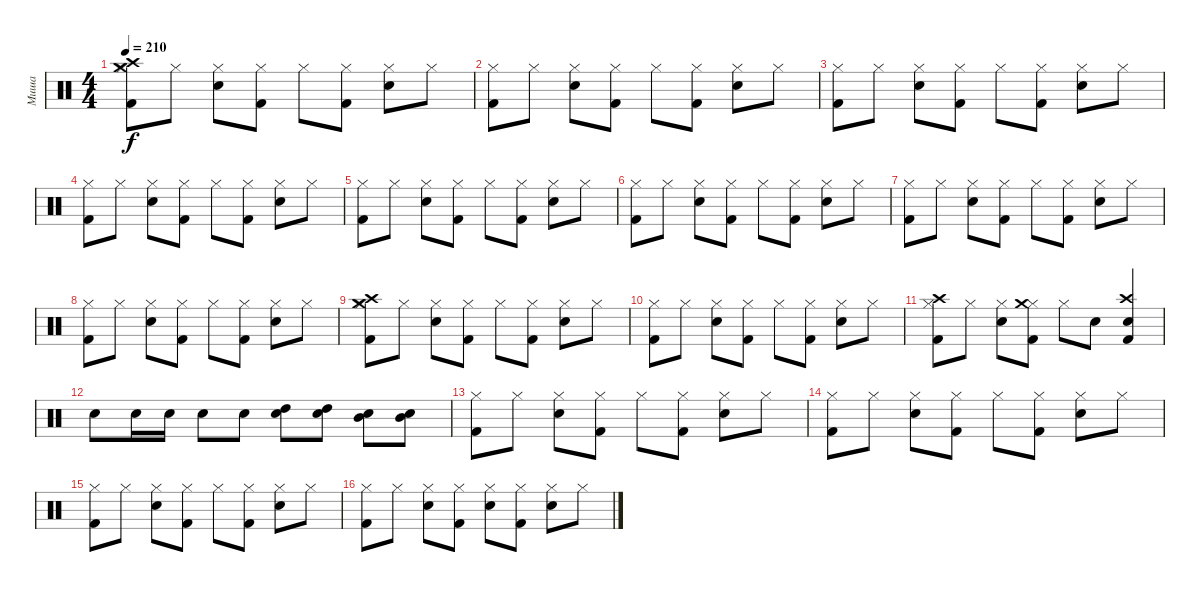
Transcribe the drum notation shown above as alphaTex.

\track ("Миша" "Миша") {instrument percussion}
\staff {score}
\articulation defaults
\ts (4 4)
\tempo 210
\clef neutral
\ks c
("Hi-Hat (closed)" "Kick (hit) 2" "Crash medium (hit)" "Crash high (hit)").8{dy f} "Hi-Hat (closed)".8 ("Hi-Hat (closed)" "Snare (hit) 2").8 ("Hi-Hat (closed)" "Kick (hit) 2").8 "Hi-Hat (closed)".8 ("Hi-Hat (closed)" "Kick (hit) 2").8 ("Hi-Hat (closed)" "Snare (hit) 2").8 "Hi-Hat (closed)".8 |
("Hi-Hat (closed)" "Kick (hit) 2").8 "Hi-Hat (closed)".8 ("Hi-Hat (closed)" "Snare (hit) 2").8 ("Hi-Hat (closed)" "Kick (hit) 2").8 "Hi-Hat (closed)".8 ("Hi-Hat (closed)" "Kick (hit) 2").8 ("Hi-Hat (closed)" "Snare (hit) 2").8 "Hi-Hat (closed)".8 |
("Hi-Hat (closed)" "Kick (hit) 2").8 "Hi-Hat (closed)".8 ("Hi-Hat (closed)" "Snare (hit) 2").8 ("Hi-Hat (closed)" "Kick (hit) 2").8 "Hi-Hat (closed)".8 ("Hi-Hat (closed)" "Kick (hit) 2").8 ("Hi-Hat (closed)" "Snare (hit) 2").8 "Hi-Hat (closed)".8 |
("Hi-Hat (closed)" "Kick (hit) 2").8 "Hi-Hat (closed)".8 ("Hi-Hat (closed)" "Snare (hit) 2").8 ("Hi-Hat (closed)" "Kick (hit) 2").8 "Hi-Hat (closed)".8 ("Hi-Hat (closed)" "Kick (hit) 2").8 ("Hi-Hat (closed)" "Snare (hit) 2").8 "Hi-Hat (closed)".8 |
("Hi-Hat (closed)" "Kick (hit) 2").8 "Hi-Hat (closed)".8 ("Hi-Hat (closed)" "Snare (hit) 2").8 ("Hi-Hat (closed)" "Kick (hit) 2").8 "Hi-Hat (closed)".8 ("Hi-Hat (closed)" "Kick (hit) 2").8 ("Hi-Hat (closed)" "Snare (hit) 2").8 "Hi-Hat (closed)".8 |
("Hi-Hat (closed)" "Kick (hit) 2").8 "Hi-Hat (closed)".8 ("Hi-Hat (closed)" "Snare (hit) 2").8 ("Hi-Hat (closed)" "Kick (hit) 2").8 "Hi-Hat (closed)".8 ("Hi-Hat (closed)" "Kick (hit) 2").8 ("Hi-Hat (closed)" "Snare (hit) 2").8 "Hi-Hat (closed)".8 |
("Hi-Hat (closed)" "Kick (hit) 2").8 "Hi-Hat (closed)".8 ("Hi-Hat (closed)" "Snare (hit) 2").8 ("Hi-Hat (closed)" "Kick (hit) 2").8 "Hi-Hat (closed)".8 ("Hi-Hat (closed)" "Kick (hit) 2").8 ("Hi-Hat (closed)" "Snare (hit) 2").8 "Hi-Hat (closed)".8 |
("Hi-Hat (closed)" "Kick (hit) 2").8 "Hi-Hat (closed)".8 ("Hi-Hat (closed)" "Snare (hit) 2").8 ("Hi-Hat (closed)" "Kick (hit) 2").8 "Hi-Hat (closed)".8 ("Hi-Hat (closed)" "Kick (hit) 2").8 ("Hi-Hat (closed)" "Snare (hit) 2").8 "Hi-Hat (closed)".8 |
("Hi-Hat (closed)" "Kick (hit) 2" "Crash medium (hit)" "Crash high (hit)").8 "Hi-Hat (closed)".8 ("Hi-Hat (closed)" "Snare (hit) 2").8 ("Hi-Hat (closed)" "Kick (hit) 2").8 "Hi-Hat (closed)".8 ("Hi-Hat (closed)" "Kick (hit) 2").8 ("Hi-Hat (closed)" "Snare (hit) 2").8 "Hi-Hat (closed)".8 |
("Hi-Hat (closed)" "Kick (hit) 2").8 "Hi-Hat (closed)".8 ("Hi-Hat (closed)" "Snare (hit) 2").8 ("Hi-Hat (closed)" "Kick (hit) 2").8 "Hi-Hat (closed)".8 ("Hi-Hat (closed)" "Kick (hit) 2").8 ("Hi-Hat (closed)" "Snare (hit) 2").8 "Hi-Hat (closed)".8 |
("Hi-Hat (closed)" "Kick (hit) 2" "Crash high (hit)").8 "Hi-Hat (closed)".8 ("Hi-Hat (closed)" "Snare (hit) 2").8 ("Hi-Hat (closed)" "Kick (hit) 2" "Crash medium (hit)").8 "Hi-Hat (closed)".8 "Snare (hit) 2".8 ("Kick (hit) 2" "Snare (hit) 2" "Crash high (hit)").4 |
"Snare (hit) 2".8 "Snare (hit) 2".16 "Snare (hit) 2".16 "Snare (hit) 2".8 "Snare (hit) 2".8 ("Snare (hit) 2" "High Tom (hit)").8 ("Snare (hit) 2" "High Tom (hit)").8 ("Snare (hit) 2" "Mid Tom (hit)").8 ("Snare (hit) 2" "Mid Tom (hit)").8 |
("Hi-Hat (closed)" "Kick (hit) 2").8 "Hi-Hat (closed)".8 ("Hi-Hat (closed)" "Snare (hit) 2").8 ("Hi-Hat (closed)" "Kick (hit) 2").8 "Hi-Hat (closed)".8 ("Hi-Hat (closed)" "Kick (hit) 2").8 ("Hi-Hat (closed)" "Snare (hit) 2").8 "Hi-Hat (closed)".8 |
("Hi-Hat (closed)" "Kick (hit) 2").8 "Hi-Hat (closed)".8 ("Hi-Hat (closed)" "Snare (hit) 2").8 ("Hi-Hat (closed)" "Kick (hit) 2").8 "Hi-Hat (closed)".8 ("Hi-Hat (closed)" "Kick (hit) 2").8 ("Hi-Hat (closed)" "Snare (hit) 2").8 "Hi-Hat (closed)".8 |
("Hi-Hat (closed)" "Kick (hit) 2").8 "Hi-Hat (closed)".8 ("Hi-Hat (closed)" "Snare (hit) 2").8 ("Hi-Hat (closed)" "Kick (hit) 2").8 "Hi-Hat (closed)".8 ("Hi-Hat (closed)" "Kick (hit) 2").8 ("Hi-Hat (closed)" "Snare (hit) 2").8 "Hi-Hat (closed)".8 |
("Hi-Hat (closed)" "Kick (hit) 2").8 "Hi-Hat (closed)".8 ("Hi-Hat (closed)" "Snare (hit) 2").8 ("Hi-Hat (closed)" "Kick (hit) 2").8 ("Hi-Hat (closed)" "Snare (hit) 2").8 ("Hi-Hat (closed)" "Kick (hit) 2").8 ("Hi-Hat (closed)" "Snare (hit) 2").8 "Hi-Hat (closed)".8
